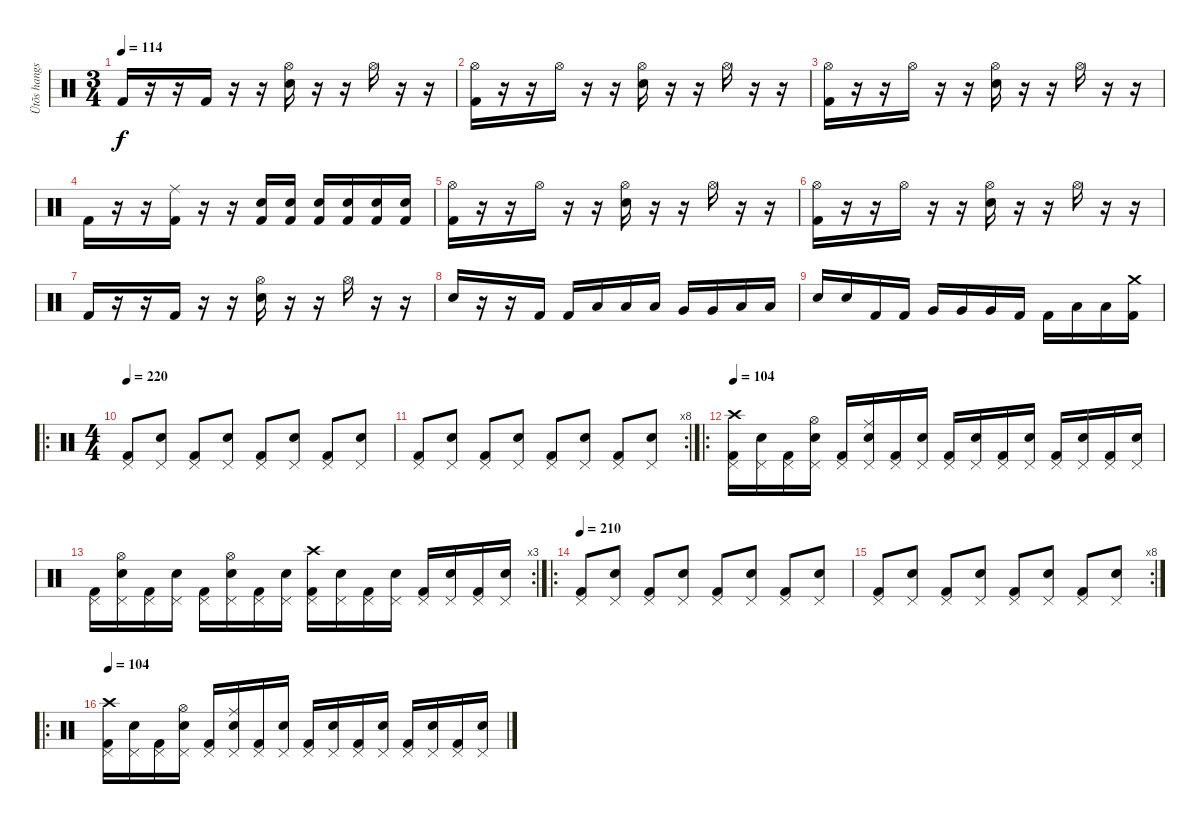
\track ("Ütõs hangszer" "Ütõs hangs") {instrument percussion}
\staff {score}
\articulation defaults
\ts (3 4)
\tempo 114
\clef neutral
\ks c "Kick (hit) 2".16{dy f}
r.16 r.16 "Kick (hit) 2".16 r.16 r.16 ("Hi-Hat (open)" "Snare (hit) 2").16 r.16 r.16 "Hi-Hat (open)".16 r.16 r.16 |
("Hi-Hat (open)" "Kick (hit) 2").16 r.16 r.16 "Hi-Hat (open)".16 r.16 r.16 ("Hi-Hat (open)" "Snare (hit) 2").16 r.16 r.16 "Hi-Hat (open)".16 r.16 r.16 |
("Hi-Hat (open)" "Kick (hit) 2").16 r.16 r.16 "Hi-Hat (open)".16 r.16 r.16 ("Hi-Hat (open)" "Snare (hit) 2").16 r.16 r.16 "Hi-Hat (open)".16 r.16 r.16 |
"Kick (hit) 2".16 r.16 r.16 ("Ride (middle)" "Kick (hit) 2").16 r.16 r.16 ("Kick (hit) 2" "Snare (hit) 2").16 ("Snare (hit) 2" "Kick (hit) 2").16 ("Kick (hit) 2" "Snare (hit) 2").16 ("Snare (hit) 2" "Kick (hit) 2").16 ("Kick (hit) 2" "Snare (hit) 2").16 ("Kick (hit) 2" "Snare (hit) 2").16 |
("Hi-Hat (open)" "Kick (hit) 2").16 r.16 r.16 "Hi-Hat (open)".16 r.16 r.16 ("Hi-Hat (open)" "Snare (hit) 2").16 r.16 r.16 "Hi-Hat (open)".16 r.16 r.16 |
("Hi-Hat (open)" "Kick (hit) 2").16 r.16 r.16 "Hi-Hat (open)".16 r.16 r.16 ("Hi-Hat (open)" "Snare (hit) 2").16 r.16 r.16 "Hi-Hat (open)".16 r.16 r.16 |
"Kick (hit) 2".16 r.16 r.16 "Kick (hit) 2".16 r.16 r.16 ("Hi-Hat (open)" "Snare (hit) 2").16 r.16 r.16 "Hi-Hat (open)".16 r.16 r.16 |
"Snare (hit) 2".16 r.16 r.16 "Kick (hit) 2".16 "Kick (hit) 2".16 "Low Tom (hit)".16 "Low Tom (hit)".16 "Low Tom (hit)".16 "Very Low Tom (hit)".16 "Very Low Tom (hit)".16 "Low Floor Tom (hit)".16 "Low Floor Tom (hit)".16 |
"Snare (hit) 2".16 "Snare (hit) 2".16 "Kick (hit) 2".16 "Kick (hit) 2".16 "Very Low Tom (hit)".16 "Very Low Tom (hit)".16 "Very Low Tom (hit)".16 "Kick (hit) 2".16 "Kick (hit) 2".16 "Low Floor Tom (hit)".16 "Low Floor Tom (hit)".16 ("Kick (hit) 2" "Crash medium (hit)").16 |
\ro
\ts (4 4)
\tempo 220
("Pedal Hi-Hat (hit)" "Kick (hit) 2").8 ("Pedal Hi-Hat (hit)" "Snare (hit) 2").8 ("Pedal Hi-Hat (hit)" "Kick (hit) 2").8 ("Pedal Hi-Hat (hit)" "Snare (hit) 2").8 ("Pedal Hi-Hat (hit)" "Kick (hit) 2").8 ("Pedal Hi-Hat (hit)" "Snare (hit) 2").8 ("Pedal Hi-Hat (hit)" "Kick (hit) 2").8 ("Pedal Hi-Hat (hit)" "Snare (hit) 2").8 |
\rc 8
("Pedal Hi-Hat (hit)" "Kick (hit) 2").8 ("Pedal Hi-Hat (hit)" "Snare (hit) 2").8 ("Pedal Hi-Hat (hit)" "Kick (hit) 2").8 ("Pedal Hi-Hat (hit)" "Snare (hit) 2").8 ("Pedal Hi-Hat (hit)" "Kick (hit) 2").8 ("Pedal Hi-Hat (hit)" "Snare (hit) 2").8 ("Pedal Hi-Hat (hit)" "Kick (hit) 2").8 ("Pedal Hi-Hat (hit)" "Snare (hit) 2").8 |
\ro
\tempo 104
("Crash high (hit)" "Pedal Hi-Hat (hit)" "Kick (hit) 2").16 ("Pedal Hi-Hat (hit)" "Snare (hit) 2").16 ("Pedal Hi-Hat (hit)" "Kick (hit) 2").16 ("Hi-Hat (open)" "Pedal Hi-Hat (hit)" "Snare (hit) 2").16 ("Pedal Hi-Hat (hit)" "Kick (hit) 2").16 ("Ride (middle)" "Pedal Hi-Hat (hit)" "Snare (hit) 2").16 ("Pedal Hi-Hat (hit)" "Kick (hit) 2").16 ("Pedal Hi-Hat (hit)" "Snare (hit) 2").16 ("Pedal Hi-Hat (hit)" "Kick (hit) 2").16 ("Pedal Hi-Hat (hit)" "Snare (hit) 2").16 ("Pedal Hi-Hat (hit)" "Kick (hit) 2").16 ("Pedal Hi-Hat (hit)" "Snare (hit) 2").16 ("Pedal Hi-Hat (hit)" "Kick (hit) 2").16 ("Pedal Hi-Hat (hit)" "Snare (hit) 2").16 ("Pedal Hi-Hat (hit)" "Kick (hit) 2").16 ("Pedal Hi-Hat (hit)" "Snare (hit) 2").16 |
\rc 3
("Pedal Hi-Hat (hit)" "Kick (hit) 2").16 ("Hi-Hat (open)" "Pedal Hi-Hat (hit)" "Snare (hit) 2").16 ("Pedal Hi-Hat (hit)" "Kick (hit) 2").16 ("Pedal Hi-Hat (hit)" "Snare (hit) 2").16 ("Pedal Hi-Hat (hit)" "Kick (hit) 2").16 ("Hi-Hat (open)" "Pedal Hi-Hat (hit)" "Snare (hit) 2").16 ("Pedal Hi-Hat (hit)" "Kick (hit) 2").16 ("Pedal Hi-Hat (hit)" "Snare (hit) 2").16 ("Crash high (hit)" "Pedal Hi-Hat (hit)" "Kick (hit) 2").16 ("Pedal Hi-Hat (hit)" "Snare (hit) 2").16 ("Pedal Hi-Hat (hit)" "Kick (hit) 2").16 ("Pedal Hi-Hat (hit)" "Snare (hit) 2").16 ("Pedal Hi-Hat (hit)" "Kick (hit) 2").16 ("Pedal Hi-Hat (hit)" "Snare (hit) 2").16 ("Pedal Hi-Hat (hit)" "Kick (hit) 2").16 ("Pedal Hi-Hat (hit)" "Snare (hit) 2").16 |
\ro
\tempo 210
("Pedal Hi-Hat (hit)" "Kick (hit) 2").8 ("Pedal Hi-Hat (hit)" "Snare (hit) 2").8 ("Pedal Hi-Hat (hit)" "Kick (hit) 2").8 ("Pedal Hi-Hat (hit)" "Snare (hit) 2").8 ("Pedal Hi-Hat (hit)" "Kick (hit) 2").8 ("Pedal Hi-Hat (hit)" "Snare (hit) 2").8 ("Pedal Hi-Hat (hit)" "Kick (hit) 2").8 ("Pedal Hi-Hat (hit)" "Snare (hit) 2").8 |
\rc 8
("Pedal Hi-Hat (hit)" "Kick (hit) 2").8 ("Pedal Hi-Hat (hit)" "Snare (hit) 2").8 ("Pedal Hi-Hat (hit)" "Kick (hit) 2").8 ("Pedal Hi-Hat (hit)" "Snare (hit) 2").8 ("Pedal Hi-Hat (hit)" "Kick (hit) 2").8 ("Pedal Hi-Hat (hit)" "Snare (hit) 2").8 ("Pedal Hi-Hat (hit)" "Kick (hit) 2").8 ("Pedal Hi-Hat (hit)" "Snare (hit) 2").8 |
\ro
\tempo 104
("Crash high (hit)" "Pedal Hi-Hat (hit)" "Kick (hit) 2").16 ("Pedal Hi-Hat (hit)" "Snare (hit) 2").16 ("Pedal Hi-Hat (hit)" "Kick (hit) 2").16 ("Hi-Hat (open)" "Pedal Hi-Hat (hit)" "Snare (hit) 2").16 ("Pedal Hi-Hat (hit)" "Kick (hit) 2").16 ("Ride (middle)" "Pedal Hi-Hat (hit)" "Snare (hit) 2").16 ("Pedal Hi-Hat (hit)" "Kick (hit) 2").16 ("Pedal Hi-Hat (hit)" "Snare (hit) 2").16 ("Pedal Hi-Hat (hit)" "Kick (hit) 2").16 ("Pedal Hi-Hat (hit)" "Snare (hit) 2").16 ("Pedal Hi-Hat (hit)" "Kick (hit) 2").16 ("Pedal Hi-Hat (hit)" "Snare (hit) 2").16 ("Pedal Hi-Hat (hit)" "Kick (hit) 2").16 ("Pedal Hi-Hat (hit)" "Snare (hit) 2").16 ("Pedal Hi-Hat (hit)" "Kick (hit) 2").16 ("Pedal Hi-Hat (hit)" "Snare (hit) 2").16
